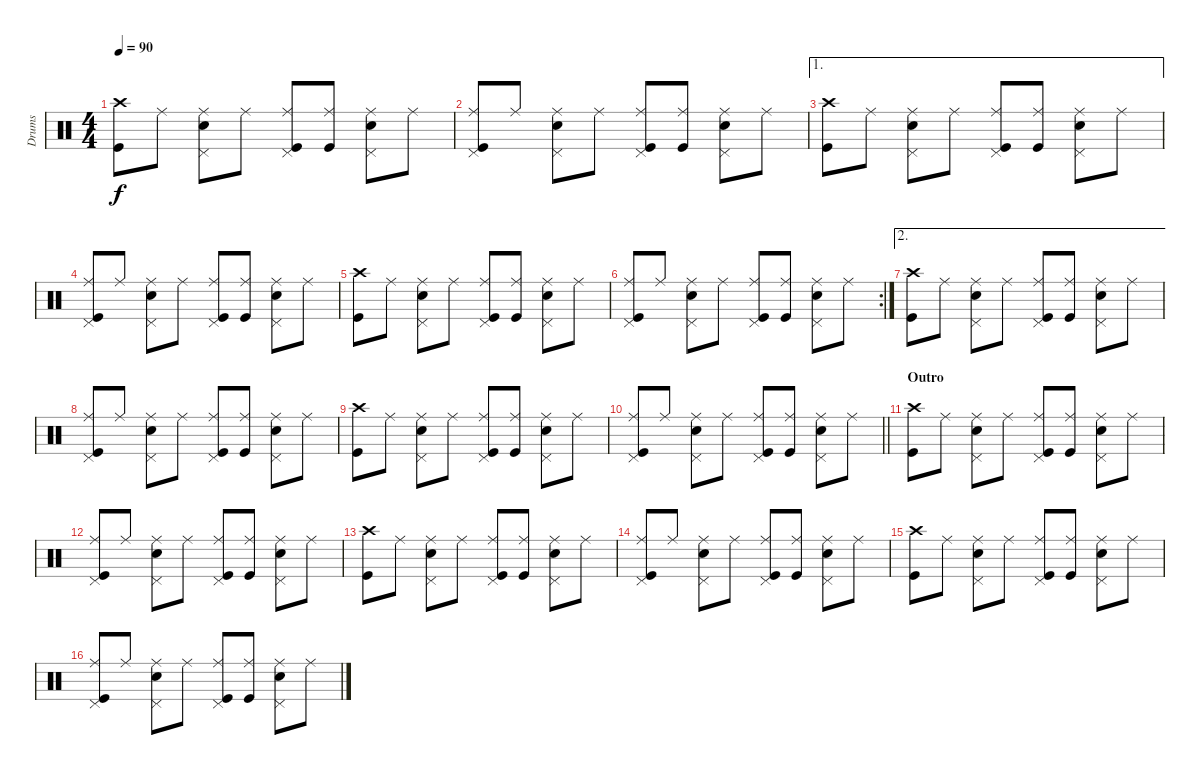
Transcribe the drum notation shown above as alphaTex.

\track ("Drums" "Drums") {instrument percussion}
\staff {score}
\articulation defaults
\ts (4 4)
\tempo 90
\clef neutral
\ks c
("Crash high (hit)" "Kick (hit)").8{dy f} "Ride (middle)".8 ("Pedal Hi-Hat (hit)" "Ride (middle)" "Electric Snare (hit)").8 "Ride (middle)".8 ("Pedal Hi-Hat (hit)" "Ride (middle)" "Kick (hit)").8 ("Ride (middle)" "Kick (hit)").8 ("Pedal Hi-Hat (hit)" "Ride (middle)" "Electric Snare (hit)").8 "Ride (middle)".8 |
("Pedal Hi-Hat (hit)" "Ride (middle)" "Kick (hit)").8 "Ride (middle)".8 ("Pedal Hi-Hat (hit)" "Ride (middle)" "Electric Snare (hit)").8 "Ride (middle)".8 ("Pedal Hi-Hat (hit)" "Ride (middle)" "Kick (hit)").8 ("Ride (middle)" "Kick (hit)").8 ("Pedal Hi-Hat (hit)" "Ride (middle)" "Electric Snare (hit)").8 "Ride (middle)".8 |
\ae 1
("Crash high (hit)" "Kick (hit)").8 "Ride (middle)".8 ("Pedal Hi-Hat (hit)" "Ride (middle)" "Electric Snare (hit)").8 "Ride (middle)".8 ("Pedal Hi-Hat (hit)" "Ride (middle)" "Kick (hit)").8 ("Ride (middle)" "Kick (hit)").8 ("Pedal Hi-Hat (hit)" "Ride (middle)" "Electric Snare (hit)").8 "Ride (middle)".8 |
("Pedal Hi-Hat (hit)" "Ride (middle)" "Kick (hit)").8 "Ride (middle)".8 ("Pedal Hi-Hat (hit)" "Ride (middle)" "Electric Snare (hit)").8 "Ride (middle)".8 ("Pedal Hi-Hat (hit)" "Ride (middle)" "Kick (hit)").8 ("Ride (middle)" "Kick (hit)").8 ("Pedal Hi-Hat (hit)" "Ride (middle)" "Electric Snare (hit)").8 "Ride (middle)".8 |
("Crash high (hit)" "Kick (hit)").8 "Ride (middle)".8 ("Pedal Hi-Hat (hit)" "Ride (middle)" "Electric Snare (hit)").8 "Ride (middle)".8 ("Pedal Hi-Hat (hit)" "Ride (middle)" "Kick (hit)").8 ("Ride (middle)" "Kick (hit)").8 ("Pedal Hi-Hat (hit)" "Ride (middle)" "Electric Snare (hit)").8 "Ride (middle)".8 |
\rc 2
("Pedal Hi-Hat (hit)" "Ride (middle)" "Kick (hit)").8 "Ride (middle)".8 ("Pedal Hi-Hat (hit)" "Ride (middle)" "Electric Snare (hit)").8 "Ride (middle)".8 ("Pedal Hi-Hat (hit)" "Ride (middle)" "Kick (hit)").8 ("Ride (middle)" "Kick (hit)").8 ("Pedal Hi-Hat (hit)" "Ride (middle)" "Electric Snare (hit)").8 "Ride (middle)".8 |
\ae 2
("Crash high (hit)" "Kick (hit)").8 "Ride (middle)".8 ("Pedal Hi-Hat (hit)" "Ride (middle)" "Electric Snare (hit)").8 "Ride (middle)".8 ("Pedal Hi-Hat (hit)" "Ride (middle)" "Kick (hit)").8 ("Ride (middle)" "Kick (hit)").8 ("Pedal Hi-Hat (hit)" "Ride (middle)" "Electric Snare (hit)").8 "Ride (middle)".8 |
("Pedal Hi-Hat (hit)" "Ride (middle)" "Kick (hit)").8 "Ride (middle)".8 ("Pedal Hi-Hat (hit)" "Ride (middle)" "Electric Snare (hit)").8 "Ride (middle)".8 ("Pedal Hi-Hat (hit)" "Ride (middle)" "Kick (hit)").8 ("Ride (middle)" "Kick (hit)").8 ("Pedal Hi-Hat (hit)" "Ride (middle)" "Electric Snare (hit)").8 "Ride (middle)".8 |
("Crash high (hit)" "Kick (hit)").8 "Ride (middle)".8 ("Pedal Hi-Hat (hit)" "Ride (middle)" "Electric Snare (hit)").8 "Ride (middle)".8 ("Pedal Hi-Hat (hit)" "Ride (middle)" "Kick (hit)").8 ("Ride (middle)" "Kick (hit)").8 ("Pedal Hi-Hat (hit)" "Ride (middle)" "Electric Snare (hit)").8 "Ride (middle)".8 |
\barLineRight lightlight
("Pedal Hi-Hat (hit)" "Ride (middle)" "Kick (hit)").8 "Ride (middle)".8 ("Pedal Hi-Hat (hit)" "Ride (middle)" "Electric Snare (hit)").8 "Ride (middle)".8 ("Pedal Hi-Hat (hit)" "Ride (middle)" "Kick (hit)").8 ("Ride (middle)" "Kick (hit)").8 ("Pedal Hi-Hat (hit)" "Ride (middle)" "Electric Snare (hit)").8 "Ride (middle)".8 |
\section ("" "Outro")
("Crash high (hit)" "Kick (hit)").8 "Ride (middle)".8 ("Pedal Hi-Hat (hit)" "Ride (middle)" "Electric Snare (hit)").8 "Ride (middle)".8 ("Pedal Hi-Hat (hit)" "Ride (middle)" "Kick (hit)").8 ("Ride (middle)" "Kick (hit)").8 ("Pedal Hi-Hat (hit)" "Ride (middle)" "Electric Snare (hit)").8 "Ride (middle)".8 |
("Pedal Hi-Hat (hit)" "Ride (middle)" "Kick (hit)").8 "Ride (middle)".8 ("Pedal Hi-Hat (hit)" "Ride (middle)" "Electric Snare (hit)").8 "Ride (middle)".8 ("Pedal Hi-Hat (hit)" "Ride (middle)" "Kick (hit)").8 ("Ride (middle)" "Kick (hit)").8 ("Pedal Hi-Hat (hit)" "Ride (middle)" "Electric Snare (hit)").8 "Ride (middle)".8 |
("Crash high (hit)" "Kick (hit)").8 "Ride (middle)".8 ("Pedal Hi-Hat (hit)" "Ride (middle)" "Electric Snare (hit)").8 "Ride (middle)".8 ("Pedal Hi-Hat (hit)" "Ride (middle)" "Kick (hit)").8 ("Ride (middle)" "Kick (hit)").8 ("Pedal Hi-Hat (hit)" "Ride (middle)" "Electric Snare (hit)").8 "Ride (middle)".8 |
("Pedal Hi-Hat (hit)" "Ride (middle)" "Kick (hit)").8 "Ride (middle)".8 ("Pedal Hi-Hat (hit)" "Ride (middle)" "Electric Snare (hit)").8 "Ride (middle)".8 ("Pedal Hi-Hat (hit)" "Ride (middle)" "Kick (hit)").8 ("Ride (middle)" "Kick (hit)").8 ("Pedal Hi-Hat (hit)" "Ride (middle)" "Electric Snare (hit)").8 "Ride (middle)".8 |
("Crash high (hit)" "Kick (hit)").8 "Ride (middle)".8 ("Pedal Hi-Hat (hit)" "Ride (middle)" "Electric Snare (hit)").8 "Ride (middle)".8 ("Pedal Hi-Hat (hit)" "Ride (middle)" "Kick (hit)").8 ("Ride (middle)" "Kick (hit)").8 ("Pedal Hi-Hat (hit)" "Ride (middle)" "Electric Snare (hit)").8 "Ride (middle)".8 |
("Pedal Hi-Hat (hit)" "Ride (middle)" "Kick (hit)").8 "Ride (middle)".8 ("Pedal Hi-Hat (hit)" "Ride (middle)" "Electric Snare (hit)").8 "Ride (middle)".8 ("Pedal Hi-Hat (hit)" "Ride (middle)" "Kick (hit)").8 ("Ride (middle)" "Kick (hit)").8 ("Pedal Hi-Hat (hit)" "Ride (middle)" "Electric Snare (hit)").8 "Ride (middle)".8
